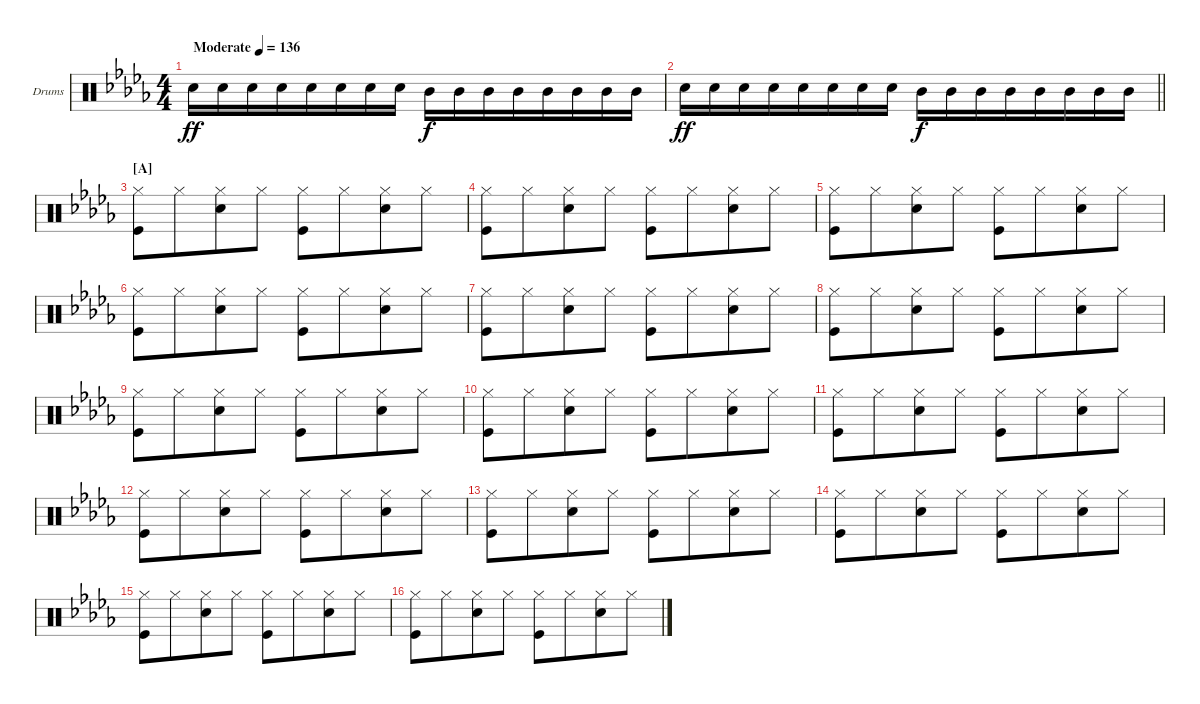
\bracketExtendMode groupsimilarinstruments
\firstSystemTrackNameOrientation horizontal
\otherSystemsTrackNameOrientation horizontal
\track ("Fabrizio Moretti" "Drums") {instrument percussion}
\staff {score}
\articulation defaults
\ts (4 4)
\beaming (8 4 4)
\tempo (136 "Moderate")
\clef neutral
\ks db "Snare (hit) 2".16{dy ff} "Snare (hit) 2".16 "Snare (hit) 2".16 "Snare (hit) 2".16 "Snare (hit) 2".16 "Snare (hit) 2".16 "Snare (hit) 2".16 "Snare (hit) 2".16 "Mid Tom (hit)".16{dy f} "Mid Tom (hit)".16 "Mid Tom (hit)".16 "Mid Tom (hit)".16 "Mid Tom (hit)".16 "Mid Tom (hit)".16 "Mid Tom (hit)".16 "Mid Tom (hit)".16
|
\barLineRight lightlight "Snare (hit) 2".16{dy ff} "Snare (hit) 2".16 "Snare (hit) 2".16 "Snare (hit) 2".16 "Snare (hit) 2".16 "Snare (hit) 2".16 "Snare (hit) 2".16 "Snare (hit) 2".16 "Mid Tom (hit)".16{dy f} "Mid Tom (hit)".16 "Mid Tom (hit)".16 "Mid Tom (hit)".16 "Mid Tom (hit)".16 "Mid Tom (hit)".16 "Mid Tom (hit)".16 "Mid Tom (hit)".16
|
\section ("A" "")
("Hi-Hat (closed)" "Kick (hit)").8 "Hi-Hat (closed)".8 ("Hi-Hat (closed)" "Snare (hit) 2").8 "Hi-Hat (closed)".8 ("Hi-Hat (closed)" "Kick (hit)").8 "Hi-Hat (closed)".8 ("Hi-Hat (closed)" "Snare (hit) 2").8 "Hi-Hat (closed)".8 |
("Hi-Hat (closed)" "Kick (hit)").8 "Hi-Hat (closed)".8 ("Hi-Hat (closed)" "Snare (hit) 2").8 "Hi-Hat (closed)".8 ("Hi-Hat (closed)" "Kick (hit)").8 "Hi-Hat (closed)".8 ("Hi-Hat (closed)" "Snare (hit) 2").8 "Hi-Hat (closed)".8 |
("Hi-Hat (closed)" "Kick (hit)").8 "Hi-Hat (closed)".8 ("Hi-Hat (closed)" "Snare (hit) 2").8 "Hi-Hat (closed)".8 ("Hi-Hat (closed)" "Kick (hit)").8 "Hi-Hat (closed)".8 ("Hi-Hat (closed)" "Snare (hit) 2").8 "Hi-Hat (closed)".8 |
("Hi-Hat (closed)" "Kick (hit)").8 "Hi-Hat (closed)".8 ("Hi-Hat (closed)" "Snare (hit) 2").8 "Hi-Hat (closed)".8 ("Hi-Hat (closed)" "Kick (hit)").8 "Hi-Hat (closed)".8 ("Hi-Hat (closed)" "Snare (hit) 2").8 "Hi-Hat (closed)".8 |
("Hi-Hat (closed)" "Kick (hit)").8 "Hi-Hat (closed)".8 ("Hi-Hat (closed)" "Snare (hit) 2").8 "Hi-Hat (closed)".8 ("Hi-Hat (closed)" "Kick (hit)").8 "Hi-Hat (closed)".8 ("Hi-Hat (closed)" "Snare (hit) 2").8 "Hi-Hat (closed)".8 |
("Hi-Hat (closed)" "Kick (hit)").8 "Hi-Hat (closed)".8 ("Hi-Hat (closed)" "Snare (hit) 2").8 "Hi-Hat (closed)".8 ("Hi-Hat (closed)" "Kick (hit)").8 "Hi-Hat (closed)".8 ("Hi-Hat (closed)" "Snare (hit) 2").8 "Hi-Hat (closed)".8 |
("Hi-Hat (closed)" "Kick (hit)").8 "Hi-Hat (closed)".8 ("Hi-Hat (closed)" "Snare (hit) 2").8 "Hi-Hat (closed)".8 ("Hi-Hat (closed)" "Kick (hit)").8 "Hi-Hat (closed)".8 ("Hi-Hat (closed)" "Snare (hit) 2").8 "Hi-Hat (closed)".8 |
("Hi-Hat (closed)" "Kick (hit)").8 "Hi-Hat (closed)".8 ("Hi-Hat (closed)" "Snare (hit) 2").8 "Hi-Hat (closed)".8 ("Hi-Hat (closed)" "Kick (hit)").8 "Hi-Hat (closed)".8 ("Hi-Hat (closed)" "Snare (hit) 2").8 "Hi-Hat (closed)".8 |
("Hi-Hat (closed)" "Kick (hit)").8 "Hi-Hat (closed)".8 ("Hi-Hat (closed)" "Snare (hit) 2").8 "Hi-Hat (closed)".8 ("Hi-Hat (closed)" "Kick (hit)").8 "Hi-Hat (closed)".8 ("Hi-Hat (closed)" "Snare (hit) 2").8 "Hi-Hat (closed)".8 |
("Hi-Hat (closed)" "Kick (hit)").8 "Hi-Hat (closed)".8 ("Hi-Hat (closed)" "Snare (hit) 2").8 "Hi-Hat (closed)".8 ("Hi-Hat (closed)" "Kick (hit)").8 "Hi-Hat (closed)".8 ("Hi-Hat (closed)" "Snare (hit) 2").8 "Hi-Hat (closed)".8 |
("Hi-Hat (closed)" "Kick (hit)").8 "Hi-Hat (closed)".8 ("Hi-Hat (closed)" "Snare (hit) 2").8 "Hi-Hat (closed)".8 ("Hi-Hat (closed)" "Kick (hit)").8 "Hi-Hat (closed)".8 ("Hi-Hat (closed)" "Snare (hit) 2").8 "Hi-Hat (closed)".8 |
("Hi-Hat (closed)" "Kick (hit)").8 "Hi-Hat (closed)".8 ("Hi-Hat (closed)" "Snare (hit) 2").8 "Hi-Hat (closed)".8 ("Hi-Hat (closed)" "Kick (hit)").8 "Hi-Hat (closed)".8 ("Hi-Hat (closed)" "Snare (hit) 2").8 "Hi-Hat (closed)".8 |
("Hi-Hat (closed)" "Kick (hit)").8 "Hi-Hat (closed)".8 ("Hi-Hat (closed)" "Snare (hit) 2").8 "Hi-Hat (closed)".8 ("Hi-Hat (closed)" "Kick (hit)").8 "Hi-Hat (closed)".8 ("Hi-Hat (closed)" "Snare (hit) 2").8 "Hi-Hat (closed)".8 |
("Hi-Hat (closed)" "Kick (hit)").8 "Hi-Hat (closed)".8 ("Hi-Hat (closed)" "Snare (hit) 2").8 "Hi-Hat (closed)".8 ("Hi-Hat (closed)" "Kick (hit)").8 "Hi-Hat (closed)".8 ("Hi-Hat (closed)" "Snare (hit) 2").8 "Hi-Hat (closed)".8
